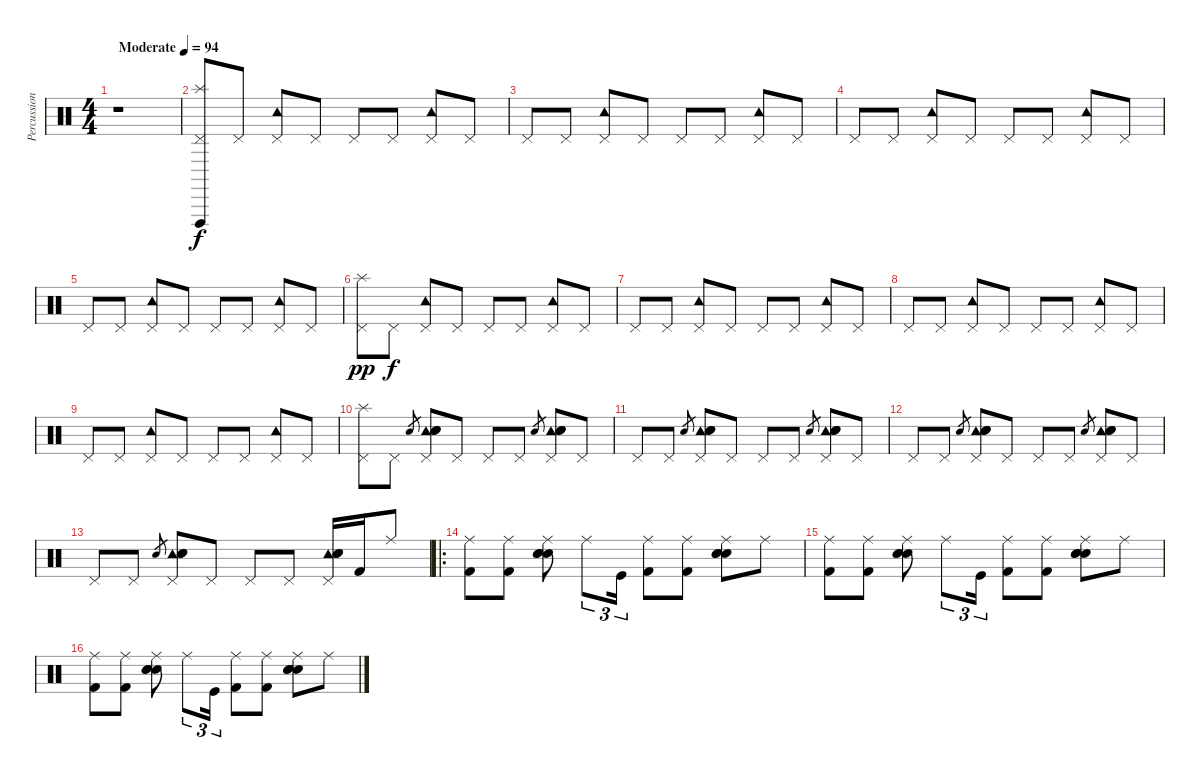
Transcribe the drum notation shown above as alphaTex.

\track ("Percussions" "Percussion") {instrument percussion}
\staff {score}
\articulation defaults
\ts (4 4)
\tempo (94 "Moderate")
\clef neutral
\ks c
r.1{dy f} |
("Splash (hit)" "Pedal Hi-Hat (hit)" "Vibraslap (hit)").8 "Pedal Hi-Hat (hit)".8 ("Tambourine (hit)" "Pedal Hi-Hat (hit)").8 "Pedal Hi-Hat (hit)".8 "Pedal Hi-Hat (hit)".8 "Pedal Hi-Hat (hit)".8 ("Tambourine (hit)" "Pedal Hi-Hat (hit)").8 "Pedal Hi-Hat (hit)".8 |
"Pedal Hi-Hat (hit)".8 "Pedal Hi-Hat (hit)".8 ("Tambourine (hit)" "Pedal Hi-Hat (hit)").8 "Pedal Hi-Hat (hit)".8 "Pedal Hi-Hat (hit)".8 "Pedal Hi-Hat (hit)".8 ("Tambourine (hit)" "Pedal Hi-Hat (hit)").8 "Pedal Hi-Hat (hit)".8 |
"Pedal Hi-Hat (hit)".8 "Pedal Hi-Hat (hit)".8 ("Tambourine (hit)" "Pedal Hi-Hat (hit)").8 "Pedal Hi-Hat (hit)".8 "Pedal Hi-Hat (hit)".8 "Pedal Hi-Hat (hit)".8 ("Tambourine (hit)" "Pedal Hi-Hat (hit)").8 "Pedal Hi-Hat (hit)".8 |
"Pedal Hi-Hat (hit)".8 "Pedal Hi-Hat (hit)".8 ("Tambourine (hit)" "Pedal Hi-Hat (hit)").8 "Pedal Hi-Hat (hit)".8 "Pedal Hi-Hat (hit)".8 "Pedal Hi-Hat (hit)".8 ("Tambourine (hit)" "Pedal Hi-Hat (hit)").8 "Pedal Hi-Hat (hit)".8 |
("Splash (hit)" "Pedal Hi-Hat (hit)").8{dy pp} "Pedal Hi-Hat (hit)".8{dy f} ("Tambourine (hit)" "Pedal Hi-Hat (hit)").8 "Pedal Hi-Hat (hit)".8 "Pedal Hi-Hat (hit)".8 "Pedal Hi-Hat (hit)".8 ("Tambourine (hit)" "Pedal Hi-Hat (hit)").8 "Pedal Hi-Hat (hit)".8 |
"Pedal Hi-Hat (hit)".8 "Pedal Hi-Hat (hit)".8 ("Tambourine (hit)" "Pedal Hi-Hat (hit)").8 "Pedal Hi-Hat (hit)".8 "Pedal Hi-Hat (hit)".8 "Pedal Hi-Hat (hit)".8 ("Tambourine (hit)" "Pedal Hi-Hat (hit)").8 "Pedal Hi-Hat (hit)".8 |
"Pedal Hi-Hat (hit)".8 "Pedal Hi-Hat (hit)".8 ("Tambourine (hit)" "Pedal Hi-Hat (hit)").8 "Pedal Hi-Hat (hit)".8 "Pedal Hi-Hat (hit)".8 "Pedal Hi-Hat (hit)".8 ("Tambourine (hit)" "Pedal Hi-Hat (hit)").8 "Pedal Hi-Hat (hit)".8 |
"Pedal Hi-Hat (hit)".8 "Pedal Hi-Hat (hit)".8 ("Tambourine (hit)" "Pedal Hi-Hat (hit)").8 "Pedal Hi-Hat (hit)".8 "Pedal Hi-Hat (hit)".8 "Pedal Hi-Hat (hit)".8 ("Tambourine (hit)" "Pedal Hi-Hat (hit)").8 "Pedal Hi-Hat (hit)".8 |
("Splash (hit)" "Pedal Hi-Hat (hit)").8 "Pedal Hi-Hat (hit)".8 "Hand Clap (hit)".8{gr} ("Tambourine (hit)" "Pedal Hi-Hat (hit)" "Hand Clap (hit)" "Hand Clap (hit)").8 "Pedal Hi-Hat (hit)".8 "Pedal Hi-Hat (hit)".8 "Pedal Hi-Hat (hit)".8 "Hand Clap (hit)".8{gr} ("Tambourine (hit)" "Pedal Hi-Hat (hit)" "Hand Clap (hit)" "Hand Clap (hit)").8 "Pedal Hi-Hat (hit)".8 |
"Pedal Hi-Hat (hit)".8 "Pedal Hi-Hat (hit)".8 "Hand Clap (hit)".8{gr} ("Tambourine (hit)" "Pedal Hi-Hat (hit)" "Hand Clap (hit)" "Hand Clap (hit)").8 "Pedal Hi-Hat (hit)".8 "Pedal Hi-Hat (hit)".8 "Pedal Hi-Hat (hit)".8 "Hand Clap (hit)".8{gr} ("Tambourine (hit)" "Pedal Hi-Hat (hit)" "Hand Clap (hit)" "Hand Clap (hit)").8 "Pedal Hi-Hat (hit)".8 |
"Pedal Hi-Hat (hit)".8 "Pedal Hi-Hat (hit)".8 "Hand Clap (hit)".8{gr} ("Tambourine (hit)" "Pedal Hi-Hat (hit)" "Hand Clap (hit)" "Hand Clap (hit)").8 "Pedal Hi-Hat (hit)".8 "Pedal Hi-Hat (hit)".8 "Pedal Hi-Hat (hit)".8 "Hand Clap (hit)".8{gr} ("Tambourine (hit)" "Pedal Hi-Hat (hit)" "Hand Clap (hit)" "Hand Clap (hit)").8 "Pedal Hi-Hat (hit)".8 |
"Pedal Hi-Hat (hit)".8 "Pedal Hi-Hat (hit)".8 "Hand Clap (hit)".8{gr} ("Tambourine (hit)" "Pedal Hi-Hat (hit)" "Hand Clap (hit)" "Hand Clap (hit)").8 "Pedal Hi-Hat (hit)".8 "Pedal Hi-Hat (hit)".8 "Pedal Hi-Hat (hit)".8 ("Tambourine (hit)" "Pedal Hi-Hat (hit)" "Snare (hit) 2" "Electric Snare (hit)").16 "Kick (hit) 2".16 "Ride (middle)".8 |
\ro
("Ride (middle)" "Kick (hit) 2").8 ("Ride (middle)" "Kick (hit) 2").8 ("Ride (middle)" "Hand Clap (hit)" "Snare (hit) 2" "Electric Snare (hit)").8 "Ride (middle)".8{tu (3 2)} "Kick (hit)".16{tu (3 2)} ("Ride (middle)" "Kick (hit) 2").8 ("Ride (middle)" "Kick (hit) 2").8 ("Ride (middle)" "Hand Clap (hit)" "Snare (hit) 2" "Electric Snare (hit)").8 "Ride (middle)".8 |
("Ride (middle)" "Kick (hit) 2").8 ("Ride (middle)" "Kick (hit) 2").8 ("Ride (middle)" "Hand Clap (hit)" "Snare (hit) 2" "Electric Snare (hit)").8 "Ride (middle)".8{tu (3 2)} "Kick (hit)".16{tu (3 2)} ("Ride (middle)" "Kick (hit) 2").8 ("Ride (middle)" "Kick (hit) 2").8 ("Ride (middle)" "Hand Clap (hit)" "Snare (hit) 2" "Electric Snare (hit)").8 "Ride (middle)".8 |
("Ride (middle)" "Kick (hit) 2").8 ("Ride (middle)" "Kick (hit) 2").8 ("Ride (middle)" "Hand Clap (hit)" "Snare (hit) 2" "Electric Snare (hit)").8 "Ride (middle)".8{tu (3 2)} "Kick (hit)".16{tu (3 2)} ("Ride (middle)" "Kick (hit) 2").8 ("Ride (middle)" "Kick (hit) 2").8 ("Ride (middle)" "Hand Clap (hit)" "Snare (hit) 2" "Electric Snare (hit)").8 "Ride (middle)".8
